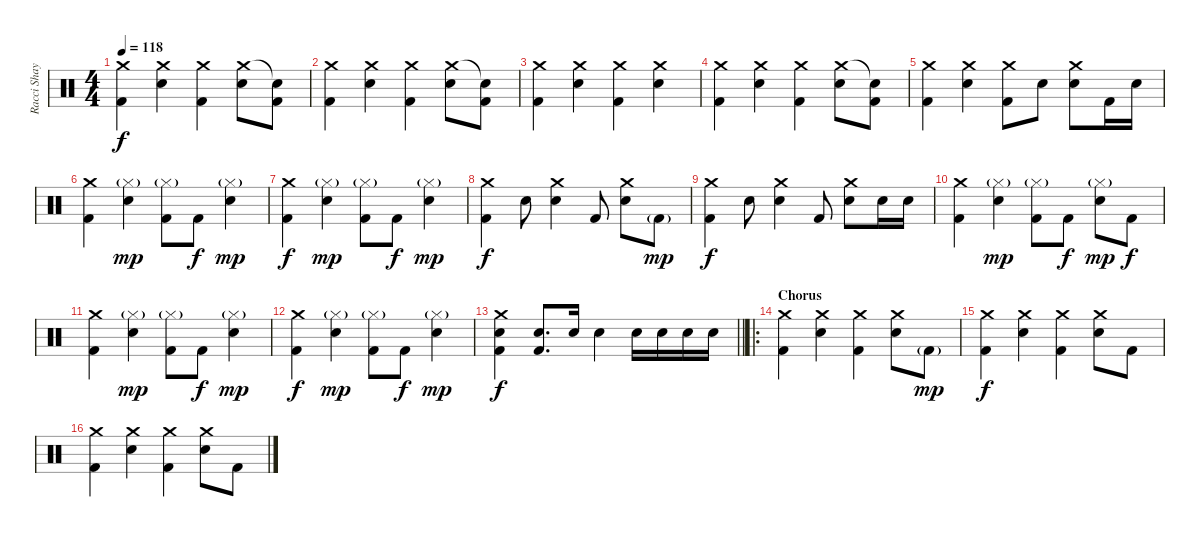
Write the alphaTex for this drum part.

\track ("Racci Shay" "Racci Shay") {instrument percussion}
\staff {score}
\articulation defaults
\ts (4 4)
\tempo 118
\clef neutral
\ks c
("Crash medium (hit)" "Kick (hit) 2").4{dy f} ("Crash medium (hit)" "Electric Snare (hit)").4 ("Crash medium (hit)" "Kick (hit) 2").4 ("Crash medium (hit)" "Electric Snare (hit)").8 ("Snare (hit)"{t} "Kick (hit) 2").8 |
("Crash medium (hit)" "Kick (hit) 2").4 ("Crash medium (hit)" "Electric Snare (hit)").4 ("Crash medium (hit)" "Kick (hit) 2").4 ("Crash medium (hit)" "Electric Snare (hit)").8 ("Snare (hit)"{t} "Kick (hit) 2").8 |
("Crash medium (hit)" "Kick (hit) 2").4 ("Crash medium (hit)" "Electric Snare (hit)").4 ("Crash medium (hit)" "Kick (hit) 2").4 ("Crash medium (hit)" "Electric Snare (hit)").4 |
("Crash medium (hit)" "Kick (hit) 2").4 ("Crash medium (hit)" "Electric Snare (hit)").4 ("Crash medium (hit)" "Kick (hit) 2").4 ("Crash medium (hit)" "Electric Snare (hit)").8 ("Snare (hit)"{t} "Kick (hit) 2").8 |
("Crash medium (hit)" "Kick (hit) 2").4 ("Crash medium (hit)" "Electric Snare (hit)").4 ("Crash medium (hit)" "Kick (hit) 2").8 "Electric Snare (hit)".8 ("Crash medium (hit)" "Electric Snare (hit)").8 "Kick (hit) 2".16 "Electric Snare (hit)".16 |
("Crash medium (hit)" "Kick (hit) 2").4 ("Hi-Hat (closed)"{g} "Electric Snare (hit)").4{dy mp} ("Hi-Hat (closed)"{g} "Kick (hit) 2").8 "Kick (hit) 2".8{dy f} ("Hi-Hat (closed)"{g} "Electric Snare (hit)").4{dy mp} |
("Crash medium (hit)" "Kick (hit) 2").4{dy f} ("Hi-Hat (closed)"{g} "Electric Snare (hit)").4{dy mp} ("Hi-Hat (closed)"{g} "Kick (hit) 2").8 "Kick (hit) 2".8{dy f} ("Hi-Hat (closed)"{g} "Electric Snare (hit)").4{dy mp} |
("Crash medium (hit)" "Kick (hit) 2").4{dy f} "Electric Snare (hit)".8 ("Crash medium (hit)" "Electric Snare (hit)").4 "Kick (hit) 2".8 ("Crash medium (hit)" "Electric Snare (hit)").8 "Kick (hit) 2"{g}.8{dy mp} |
("Crash medium (hit)" "Kick (hit) 2").4{dy f} "Electric Snare (hit)".8 ("Crash medium (hit)" "Electric Snare (hit)").4 "Kick (hit) 2".8 ("Crash medium (hit)" "Electric Snare (hit)").8 "Electric Snare (hit)".16 "Electric Snare (hit)".16 |
("Crash medium (hit)" "Kick (hit) 2").4 ("Hi-Hat (closed)"{g} "Electric Snare (hit)").4{dy mp} ("Hi-Hat (closed)"{g} "Kick (hit) 2").8 "Kick (hit) 2".8{dy f} ("Hi-Hat (closed)"{g} "Electric Snare (hit)").8{dy mp} "Kick (hit) 2".8{dy f} |
("Crash medium (hit)" "Kick (hit) 2").4 ("Hi-Hat (closed)"{g} "Electric Snare (hit)").4{dy mp} ("Hi-Hat (closed)"{g} "Kick (hit) 2").8 "Kick (hit) 2".8{dy f} ("Hi-Hat (closed)"{g} "Electric Snare (hit)").4{dy mp} |
("Crash medium (hit)" "Kick (hit) 2").4{dy f} ("Hi-Hat (closed)"{g} "Electric Snare (hit)").4{dy mp} ("Hi-Hat (closed)"{g} "Kick (hit) 2").8 "Kick (hit) 2".8{dy f} ("Hi-Hat (closed)"{g} "Electric Snare (hit)").4{dy mp} |
\barLineRight lightlight
("Crash medium (hit)" "Electric Snare (hit)" "Kick (hit) 2").4{dy f} ("Electric Snare (hit)" "Kick (hit) 2").8{d} "Electric Snare (hit)".16 "Electric Snare (hit)".4 "Electric Snare (hit)".16 "Electric Snare (hit)".16 "Electric Snare (hit)".16 "Electric Snare (hit)".16 |
\ro
\section ("" "Chorus")
("Crash medium (hit)" "Kick (hit) 2").4 ("Crash medium (hit)" "Electric Snare (hit)").4 ("Crash medium (hit)" "Kick (hit) 2").4 ("Crash medium (hit)" "Electric Snare (hit)").8 "Kick (hit) 2"{g}.8{dy mp} |
("Crash medium (hit)" "Kick (hit) 2").4{dy f} ("Crash medium (hit)" "Electric Snare (hit)").4 ("Crash medium (hit)" "Kick (hit) 2").4 ("Crash medium (hit)" "Electric Snare (hit)").8 "Kick (hit) 2".8 |
("Crash medium (hit)" "Kick (hit) 2").4 ("Crash medium (hit)" "Electric Snare (hit)").4 ("Crash medium (hit)" "Kick (hit) 2").4 ("Crash medium (hit)" "Electric Snare (hit)").8 "Kick (hit) 2".8
